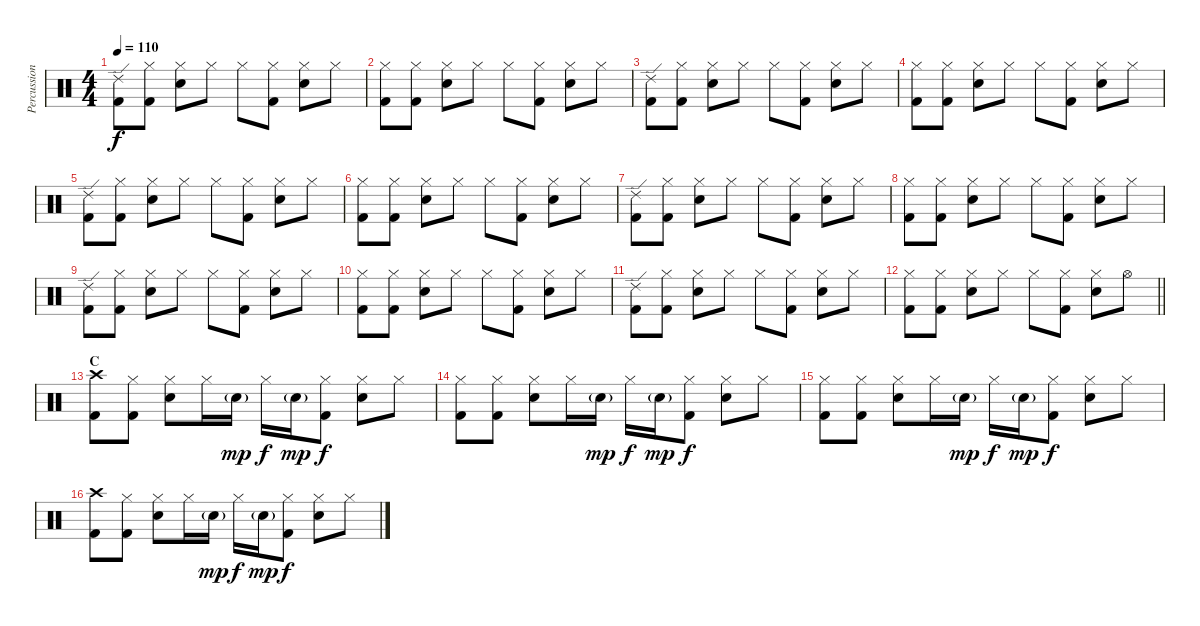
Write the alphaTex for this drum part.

\track ("Percussion" "Percussion") {instrument percussion}
\staff {score}
\articulation defaults
\ts (4 4)
\tempo 110
\clef neutral
\ks c
("Ride (edge) 2" "Kick (hit) 2").8{dy f} ("Hi-Hat (closed)" "Kick (hit) 2").8 ("Hi-Hat (closed)" "Electric Snare (hit)").8 "Hi-Hat (closed)".8 "Hi-Hat (closed)".8 ("Hi-Hat (closed)" "Kick (hit) 2").8 ("Hi-Hat (closed)" "Electric Snare (hit)").8 "Hi-Hat (closed)".8 |
("Hi-Hat (closed)" "Kick (hit) 2").8 ("Hi-Hat (closed)" "Kick (hit) 2").8 ("Hi-Hat (closed)" "Electric Snare (hit)").8 "Hi-Hat (closed)".8 "Hi-Hat (closed)".8 ("Hi-Hat (closed)" "Kick (hit) 2").8 ("Hi-Hat (closed)" "Electric Snare (hit)").8 "Hi-Hat (closed)".8 |
("Ride (edge) 2" "Kick (hit) 2").8 ("Hi-Hat (closed)" "Kick (hit) 2").8 ("Hi-Hat (closed)" "Electric Snare (hit)").8 "Hi-Hat (closed)".8 "Hi-Hat (closed)".8 ("Hi-Hat (closed)" "Kick (hit) 2").8 ("Hi-Hat (closed)" "Electric Snare (hit)").8 "Hi-Hat (closed)".8 |
("Hi-Hat (closed)" "Kick (hit) 2").8 ("Hi-Hat (closed)" "Kick (hit) 2").8 ("Hi-Hat (closed)" "Electric Snare (hit)").8 "Hi-Hat (closed)".8 "Hi-Hat (closed)".8 ("Hi-Hat (closed)" "Kick (hit) 2").8 ("Hi-Hat (closed)" "Electric Snare (hit)").8 "Hi-Hat (closed)".8 |
("Ride (edge) 2" "Kick (hit) 2").8 ("Hi-Hat (closed)" "Kick (hit) 2").8 ("Hi-Hat (closed)" "Electric Snare (hit)").8 "Hi-Hat (closed)".8 "Hi-Hat (closed)".8 ("Hi-Hat (closed)" "Kick (hit) 2").8 ("Hi-Hat (closed)" "Electric Snare (hit)").8 "Hi-Hat (closed)".8 |
("Hi-Hat (closed)" "Kick (hit) 2").8 ("Hi-Hat (closed)" "Kick (hit) 2").8 ("Hi-Hat (closed)" "Electric Snare (hit)").8 "Hi-Hat (closed)".8 "Hi-Hat (closed)".8 ("Hi-Hat (closed)" "Kick (hit) 2").8 ("Hi-Hat (closed)" "Electric Snare (hit)").8 "Hi-Hat (closed)".8 |
("Ride (edge) 2" "Kick (hit) 2").8 ("Hi-Hat (closed)" "Kick (hit) 2").8 ("Hi-Hat (closed)" "Electric Snare (hit)").8 "Hi-Hat (closed)".8 "Hi-Hat (closed)".8 ("Hi-Hat (closed)" "Kick (hit) 2").8 ("Hi-Hat (closed)" "Electric Snare (hit)").8 "Hi-Hat (closed)".8 |
("Hi-Hat (closed)" "Kick (hit) 2").8 ("Hi-Hat (closed)" "Kick (hit) 2").8 ("Hi-Hat (closed)" "Electric Snare (hit)").8 "Hi-Hat (closed)".8 "Hi-Hat (closed)".8 ("Hi-Hat (closed)" "Kick (hit) 2").8 ("Hi-Hat (closed)" "Electric Snare (hit)").8 "Hi-Hat (closed)".8 |
("Ride (edge) 2" "Kick (hit) 2").8 ("Hi-Hat (closed)" "Kick (hit) 2").8 ("Hi-Hat (closed)" "Electric Snare (hit)").8 "Hi-Hat (closed)".8 "Hi-Hat (closed)".8 ("Hi-Hat (closed)" "Kick (hit) 2").8 ("Hi-Hat (closed)" "Electric Snare (hit)").8 "Hi-Hat (closed)".8 |
("Hi-Hat (closed)" "Kick (hit) 2").8 ("Hi-Hat (closed)" "Kick (hit) 2").8 ("Hi-Hat (closed)" "Electric Snare (hit)").8 "Hi-Hat (closed)".8 "Hi-Hat (closed)".8 ("Hi-Hat (closed)" "Kick (hit) 2").8 ("Hi-Hat (closed)" "Electric Snare (hit)").8 "Hi-Hat (closed)".8 |
("Ride (edge) 2" "Kick (hit) 2").8 ("Hi-Hat (closed)" "Kick (hit) 2").8 ("Hi-Hat (closed)" "Electric Snare (hit)").8 "Hi-Hat (closed)".8 "Hi-Hat (closed)".8 ("Hi-Hat (closed)" "Kick (hit) 2").8 ("Hi-Hat (closed)" "Electric Snare (hit)").8 "Hi-Hat (closed)".8 |
\barLineRight lightlight
("Hi-Hat (closed)" "Kick (hit) 2").8 ("Hi-Hat (closed)" "Kick (hit) 2").8 ("Hi-Hat (closed)" "Electric Snare (hit)").8 "Hi-Hat (closed)".8 "Hi-Hat (closed)".8 ("Hi-Hat (closed)" "Kick (hit) 2").8 ("Hi-Hat (closed)" "Electric Snare (hit)").8 "Hi-Hat (open)".8 |
\section ("" "C")
("Crash high (hit)" "Kick (hit) 2").8 ("Hi-Hat (closed)" "Kick (hit) 2").8 ("Hi-Hat (closed)" "Electric Snare (hit)").8 "Hi-Hat (closed)".16 "Electric Snare (hit)"{g}.16{dy mp} "Hi-Hat (closed)".16{dy f} "Electric Snare (hit)"{g}.16{dy mp} ("Hi-Hat (closed)" "Kick (hit) 2").8{dy f} ("Hi-Hat (closed)" "Electric Snare (hit)").8 "Hi-Hat (closed)".8 |
("Hi-Hat (closed)" "Kick (hit) 2").8 ("Hi-Hat (closed)" "Kick (hit) 2").8 ("Hi-Hat (closed)" "Electric Snare (hit)").8 "Hi-Hat (closed)".16 "Electric Snare (hit)"{g}.16{dy mp} "Hi-Hat (closed)".16{dy f} "Electric Snare (hit)"{g}.16{dy mp} ("Hi-Hat (closed)" "Kick (hit) 2").8{dy f} ("Hi-Hat (closed)" "Electric Snare (hit)").8 "Hi-Hat (closed)".8 |
("Hi-Hat (closed)" "Kick (hit) 2").8 ("Hi-Hat (closed)" "Kick (hit) 2").8 ("Hi-Hat (closed)" "Electric Snare (hit)").8 "Hi-Hat (closed)".16 "Electric Snare (hit)"{g}.16{dy mp} "Hi-Hat (closed)".16{dy f} "Electric Snare (hit)"{g}.16{dy mp} ("Hi-Hat (closed)" "Kick (hit) 2").8{dy f} ("Hi-Hat (closed)" "Electric Snare (hit)").8 "Hi-Hat (closed)".8 |
("Crash high (hit)" "Kick (hit) 2").8 ("Hi-Hat (closed)" "Kick (hit) 2").8 ("Hi-Hat (closed)" "Electric Snare (hit)").8 "Hi-Hat (closed)".16 "Electric Snare (hit)"{g}.16{dy mp} "Hi-Hat (closed)".16{dy f} "Electric Snare (hit)"{g}.16{dy mp} ("Hi-Hat (closed)" "Kick (hit) 2").8{dy f} ("Hi-Hat (closed)" "Electric Snare (hit)").8 "Hi-Hat (closed)".8
